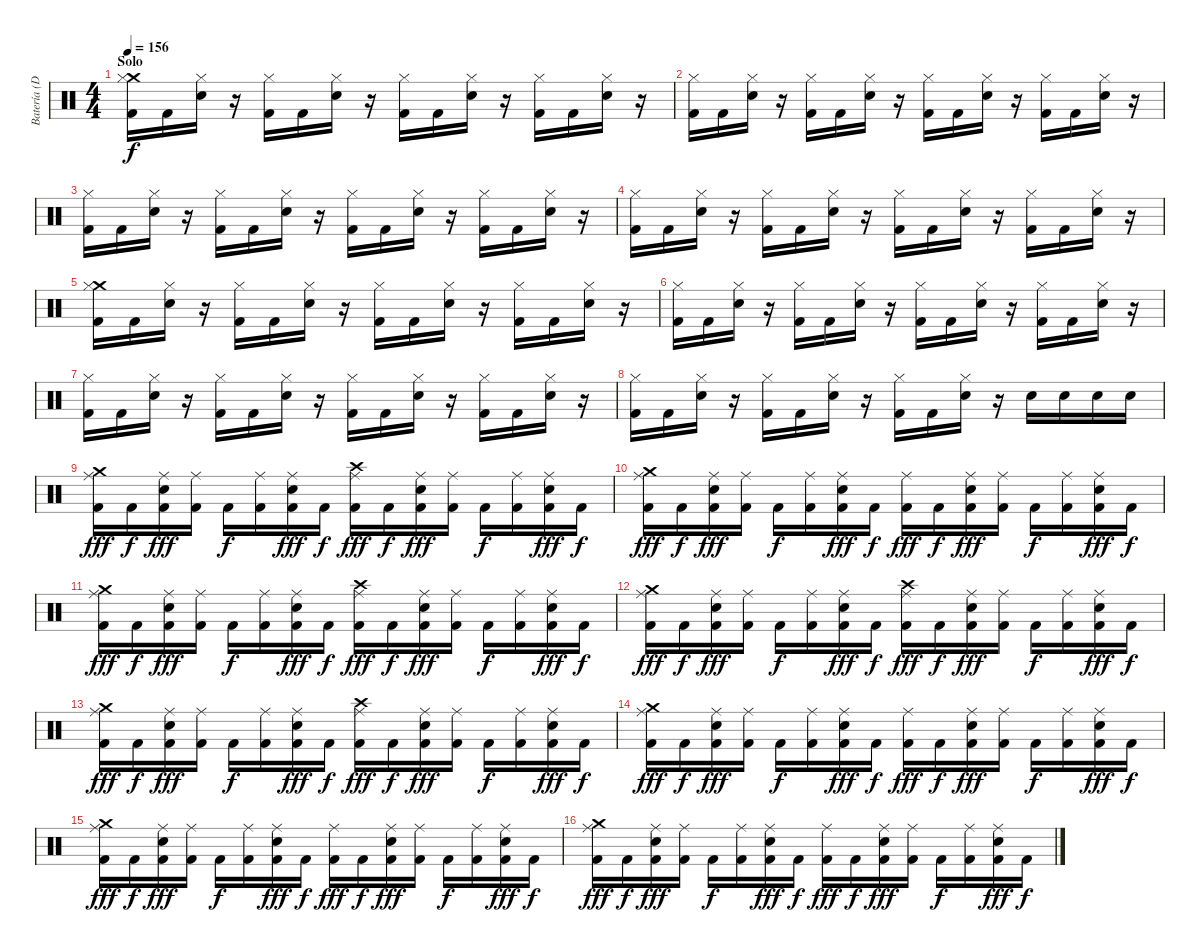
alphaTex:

\track ("Batería (Dani)" "Batería (D") {instrument percussion}
\staff {score}
\articulation defaults
\ts (4 4)
\section ("" "Solo")
\tempo 156
\clef neutral
\ks c
("Crash medium (hit)" "Hi-Hat (closed)" "Kick (hit) 2").16{dy f} "Kick (hit) 2".16 ("Hi-Hat (closed)" "Electric Snare (hit)").16 r.16 ("Hi-Hat (closed)" "Kick (hit) 2").16 "Kick (hit) 2".16 ("Hi-Hat (closed)" "Electric Snare (hit)").16 r.16 ("Hi-Hat (closed)" "Kick (hit) 2").16 "Kick (hit) 2".16 ("Hi-Hat (closed)" "Electric Snare (hit)").16 r.16 ("Hi-Hat (closed)" "Kick (hit) 2").16 "Kick (hit) 2".16 ("Hi-Hat (closed)" "Electric Snare (hit)").16 r.16 |
("Hi-Hat (closed)" "Kick (hit) 2").16 "Kick (hit) 2".16 ("Hi-Hat (closed)" "Electric Snare (hit)").16 r.16 ("Hi-Hat (closed)" "Kick (hit) 2").16 "Kick (hit) 2".16 ("Hi-Hat (closed)" "Electric Snare (hit)").16 r.16 ("Hi-Hat (closed)" "Kick (hit) 2").16 "Kick (hit) 2".16 ("Hi-Hat (closed)" "Electric Snare (hit)").16 r.16 ("Hi-Hat (closed)" "Kick (hit) 2").16 "Kick (hit) 2".16 ("Hi-Hat (closed)" "Electric Snare (hit)").16 r.16 |
("Hi-Hat (closed)" "Kick (hit) 2").16 "Kick (hit) 2".16 ("Hi-Hat (closed)" "Electric Snare (hit)").16 r.16 ("Hi-Hat (closed)" "Kick (hit) 2").16 "Kick (hit) 2".16 ("Hi-Hat (closed)" "Electric Snare (hit)").16 r.16 ("Hi-Hat (closed)" "Kick (hit) 2").16 "Kick (hit) 2".16 ("Hi-Hat (closed)" "Electric Snare (hit)").16 r.16 ("Hi-Hat (closed)" "Kick (hit) 2").16 "Kick (hit) 2".16 ("Hi-Hat (closed)" "Electric Snare (hit)").16 r.16 |
("Hi-Hat (closed)" "Kick (hit) 2").16 "Kick (hit) 2".16 ("Hi-Hat (closed)" "Electric Snare (hit)").16 r.16 ("Hi-Hat (closed)" "Kick (hit) 2").16 "Kick (hit) 2".16 ("Hi-Hat (closed)" "Electric Snare (hit)").16 r.16 ("Hi-Hat (closed)" "Kick (hit) 2").16 "Kick (hit) 2".16 ("Hi-Hat (closed)" "Electric Snare (hit)").16 r.16 ("Hi-Hat (closed)" "Kick (hit) 2").16 "Kick (hit) 2".16 ("Hi-Hat (closed)" "Electric Snare (hit)").16 r.16 |
("Crash medium (hit)" "Hi-Hat (closed)" "Kick (hit) 2").16 "Kick (hit) 2".16 ("Hi-Hat (closed)" "Electric Snare (hit)").16 r.16 ("Hi-Hat (closed)" "Kick (hit) 2").16 "Kick (hit) 2".16 ("Hi-Hat (closed)" "Electric Snare (hit)").16 r.16 ("Hi-Hat (closed)" "Kick (hit) 2").16 "Kick (hit) 2".16 ("Hi-Hat (closed)" "Electric Snare (hit)").16 r.16 ("Hi-Hat (closed)" "Kick (hit) 2").16 "Kick (hit) 2".16 ("Hi-Hat (closed)" "Electric Snare (hit)").16 r.16 |
("Hi-Hat (closed)" "Kick (hit) 2").16 "Kick (hit) 2".16 ("Hi-Hat (closed)" "Electric Snare (hit)").16 r.16 ("Hi-Hat (closed)" "Kick (hit) 2").16 "Kick (hit) 2".16 ("Hi-Hat (closed)" "Electric Snare (hit)").16 r.16 ("Hi-Hat (closed)" "Kick (hit) 2").16 "Kick (hit) 2".16 ("Hi-Hat (closed)" "Electric Snare (hit)").16 r.16 ("Hi-Hat (closed)" "Kick (hit) 2").16 "Kick (hit) 2".16 ("Hi-Hat (closed)" "Electric Snare (hit)").16 r.16 |
("Hi-Hat (closed)" "Kick (hit) 2").16 "Kick (hit) 2".16 ("Hi-Hat (closed)" "Electric Snare (hit)").16 r.16 ("Hi-Hat (closed)" "Kick (hit) 2").16 "Kick (hit) 2".16 ("Hi-Hat (closed)" "Electric Snare (hit)").16 r.16 ("Hi-Hat (closed)" "Kick (hit) 2").16 "Kick (hit) 2".16 ("Hi-Hat (closed)" "Electric Snare (hit)").16 r.16 ("Hi-Hat (closed)" "Kick (hit) 2").16 "Kick (hit) 2".16 ("Hi-Hat (closed)" "Electric Snare (hit)").16 r.16 |
("Hi-Hat (closed)" "Kick (hit) 2").16 "Kick (hit) 2".16 ("Hi-Hat (closed)" "Electric Snare (hit)").16 r.16 ("Hi-Hat (closed)" "Kick (hit) 2").16 "Kick (hit) 2".16 ("Hi-Hat (closed)" "Electric Snare (hit)").16 r.16 ("Hi-Hat (closed)" "Kick (hit) 2").16 "Kick (hit) 2".16 ("Hi-Hat (closed)" "Electric Snare (hit)").16 r.16 "Electric Snare (hit)".16 "Electric Snare (hit)".16 "Electric Snare (hit)".16 "Electric Snare (hit)".16 |
("Crash medium (hit)" "Ride (middle)" "Kick (hit) 2").16{dy fff} "Kick (hit) 2".16{dy f} ("Ride (middle)" "Electric Snare (hit)" "Kick (hit) 2").16{dy fff} ("Ride (middle)" "Kick (hit) 2").16 "Kick (hit) 2".16{dy f} ("Ride (middle)" "Kick (hit) 2").16 ("Ride (middle)" "Electric Snare (hit)" "Kick (hit) 2").16{dy fff} "Kick (hit) 2".16{dy f} ("Crash high (hit)" "Ride (middle)" "Kick (hit) 2").16{dy fff} "Kick (hit) 2".16{dy f} ("Ride (middle)" "Electric Snare (hit)" "Kick (hit) 2").16{dy fff} ("Ride (middle)" "Kick (hit) 2").16 "Kick (hit) 2".16{dy f} ("Ride (middle)" "Kick (hit) 2").16 ("Ride (middle)" "Electric Snare (hit)" "Kick (hit) 2").16{dy fff} "Kick (hit) 2".16{dy f} |
("Crash medium (hit)" "Ride (middle)" "Kick (hit) 2").16{dy fff} "Kick (hit) 2".16{dy f} ("Ride (middle)" "Electric Snare (hit)" "Kick (hit) 2").16{dy fff} ("Ride (middle)" "Kick (hit) 2").16 "Kick (hit) 2".16{dy f} ("Ride (middle)" "Kick (hit) 2").16 ("Ride (middle)" "Electric Snare (hit)" "Kick (hit) 2").16{dy fff} "Kick (hit) 2".16{dy f} ("Ride (middle)" "Kick (hit) 2").16{dy fff} "Kick (hit) 2".16{dy f} ("Ride (middle)" "Electric Snare (hit)" "Kick (hit) 2").16{dy fff} ("Ride (middle)" "Kick (hit) 2").16 "Kick (hit) 2".16{dy f} ("Ride (middle)" "Kick (hit) 2").16 ("Ride (middle)" "Electric Snare (hit)" "Kick (hit) 2").16{dy fff} "Kick (hit) 2".16{dy f} |
("Crash medium (hit)" "Ride (middle)" "Kick (hit) 2").16{dy fff} "Kick (hit) 2".16{dy f} ("Ride (middle)" "Electric Snare (hit)" "Kick (hit) 2").16{dy fff} ("Ride (middle)" "Kick (hit) 2").16 "Kick (hit) 2".16{dy f} ("Ride (middle)" "Kick (hit) 2").16 ("Ride (middle)" "Electric Snare (hit)" "Kick (hit) 2").16{dy fff} "Kick (hit) 2".16{dy f} ("Crash high (hit)" "Ride (middle)" "Kick (hit) 2").16{dy fff} "Kick (hit) 2".16{dy f} ("Ride (middle)" "Electric Snare (hit)" "Kick (hit) 2").16{dy fff} ("Ride (middle)" "Kick (hit) 2").16 "Kick (hit) 2".16{dy f} ("Ride (middle)" "Kick (hit) 2").16 ("Ride (middle)" "Electric Snare (hit)" "Kick (hit) 2").16{dy fff} "Kick (hit) 2".16{dy f} |
("Crash medium (hit)" "Ride (middle)" "Kick (hit) 2").16{dy fff} "Kick (hit) 2".16{dy f} ("Ride (middle)" "Electric Snare (hit)" "Kick (hit) 2").16{dy fff} ("Ride (middle)" "Kick (hit) 2").16 "Kick (hit) 2".16{dy f} ("Ride (middle)" "Kick (hit) 2").16 ("Ride (middle)" "Electric Snare (hit)" "Kick (hit) 2").16{dy fff} "Kick (hit) 2".16{dy f} ("Crash high (hit)" "Ride (middle)" "Kick (hit) 2").16{dy fff} "Kick (hit) 2".16{dy f} ("Ride (middle)" "Electric Snare (hit)" "Kick (hit) 2").16{dy fff} ("Ride (middle)" "Kick (hit) 2").16 "Kick (hit) 2".16{dy f} ("Ride (middle)" "Kick (hit) 2").16 ("Ride (middle)" "Electric Snare (hit)" "Kick (hit) 2").16{dy fff} "Kick (hit) 2".16{dy f} |
("Crash medium (hit)" "Ride (middle)" "Kick (hit) 2").16{dy fff} "Kick (hit) 2".16{dy f} ("Ride (middle)" "Electric Snare (hit)" "Kick (hit) 2").16{dy fff} ("Ride (middle)" "Kick (hit) 2").16 "Kick (hit) 2".16{dy f} ("Ride (middle)" "Kick (hit) 2").16 ("Ride (middle)" "Electric Snare (hit)" "Kick (hit) 2").16{dy fff} "Kick (hit) 2".16{dy f} ("Crash high (hit)" "Ride (middle)" "Kick (hit) 2").16{dy fff} "Kick (hit) 2".16{dy f} ("Ride (middle)" "Electric Snare (hit)" "Kick (hit) 2").16{dy fff} ("Ride (middle)" "Kick (hit) 2").16 "Kick (hit) 2".16{dy f} ("Ride (middle)" "Kick (hit) 2").16 ("Ride (middle)" "Electric Snare (hit)" "Kick (hit) 2").16{dy fff} "Kick (hit) 2".16{dy f} |
("Crash medium (hit)" "Ride (middle)" "Kick (hit) 2").16{dy fff} "Kick (hit) 2".16{dy f} ("Ride (middle)" "Electric Snare (hit)" "Kick (hit) 2").16{dy fff} ("Ride (middle)" "Kick (hit) 2").16 "Kick (hit) 2".16{dy f} ("Ride (middle)" "Kick (hit) 2").16 ("Ride (middle)" "Electric Snare (hit)" "Kick (hit) 2").16{dy fff} "Kick (hit) 2".16{dy f} ("Ride (middle)" "Kick (hit) 2").16{dy fff} "Kick (hit) 2".16{dy f} ("Ride (middle)" "Electric Snare (hit)" "Kick (hit) 2").16{dy fff} ("Ride (middle)" "Kick (hit) 2").16 "Kick (hit) 2".16{dy f} ("Ride (middle)" "Kick (hit) 2").16 ("Ride (middle)" "Electric Snare (hit)" "Kick (hit) 2").16{dy fff} "Kick (hit) 2".16{dy f} |
("Crash medium (hit)" "Ride (middle)" "Kick (hit) 2").16{dy fff} "Kick (hit) 2".16{dy f} ("Ride (middle)" "Electric Snare (hit)" "Kick (hit) 2").16{dy fff} ("Ride (middle)" "Kick (hit) 2").16 "Kick (hit) 2".16{dy f} ("Ride (middle)" "Kick (hit) 2").16 ("Ride (middle)" "Electric Snare (hit)" "Kick (hit) 2").16{dy fff} "Kick (hit) 2".16{dy f} ("Ride (middle)" "Kick (hit) 2").16{dy fff} "Kick (hit) 2".16{dy f} ("Ride (middle)" "Electric Snare (hit)" "Kick (hit) 2").16{dy fff} ("Ride (middle)" "Kick (hit) 2").16 "Kick (hit) 2".16{dy f} ("Ride (middle)" "Kick (hit) 2").16 ("Ride (middle)" "Electric Snare (hit)" "Kick (hit) 2").16{dy fff} "Kick (hit) 2".16{dy f} |
("Crash medium (hit)" "Ride (middle)" "Kick (hit) 2").16{dy fff} "Kick (hit) 2".16{dy f} ("Ride (middle)" "Electric Snare (hit)" "Kick (hit) 2").16{dy fff} ("Ride (middle)" "Kick (hit) 2").16 "Kick (hit) 2".16{dy f} ("Ride (middle)" "Kick (hit) 2").16 ("Ride (middle)" "Electric Snare (hit)" "Kick (hit) 2").16{dy fff} "Kick (hit) 2".16{dy f} ("Ride (middle)" "Kick (hit) 2").16{dy fff} "Kick (hit) 2".16{dy f} ("Ride (middle)" "Electric Snare (hit)" "Kick (hit) 2").16{dy fff} ("Ride (middle)" "Kick (hit) 2").16 "Kick (hit) 2".16{dy f} ("Ride (middle)" "Kick (hit) 2").16 ("Ride (middle)" "Electric Snare (hit)" "Kick (hit) 2").16{dy fff} "Kick (hit) 2".16{dy f}
